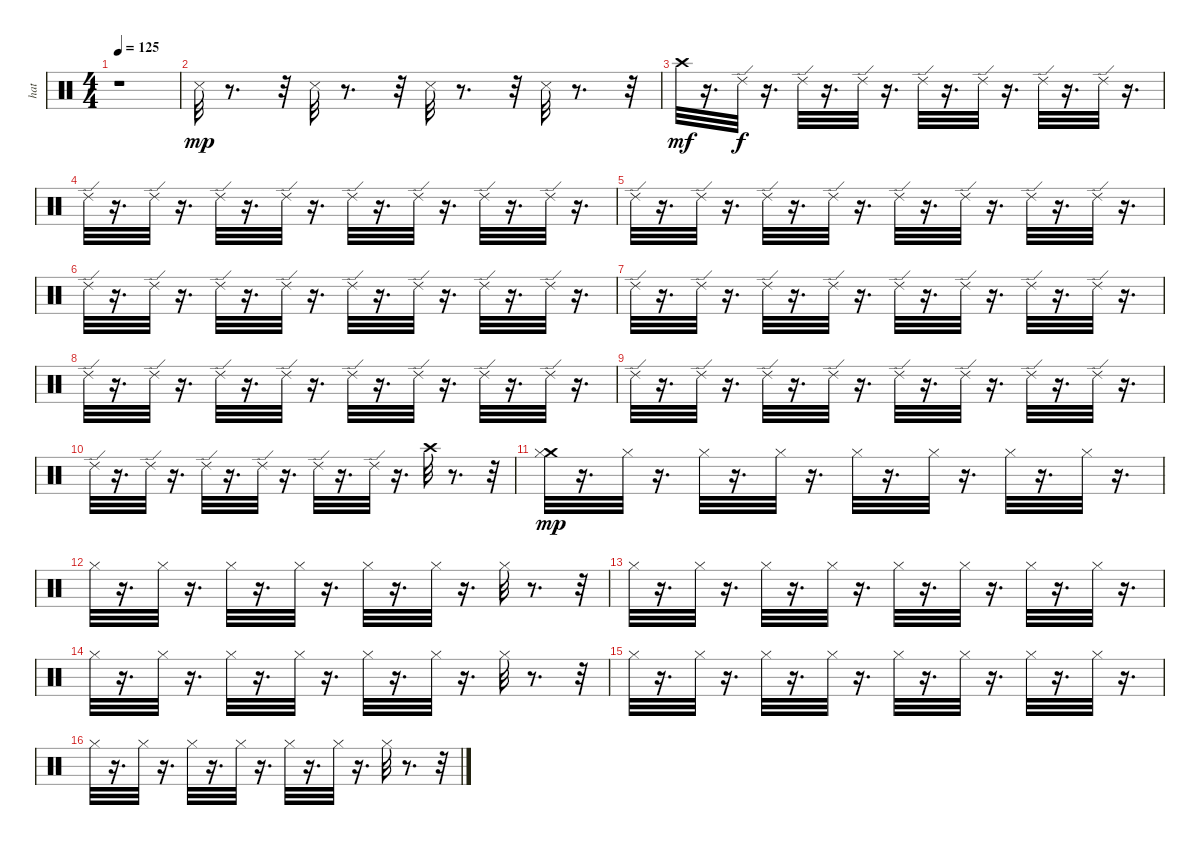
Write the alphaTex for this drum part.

\track ("hat" "hat") {instrument percussion}
\staff {score}
\articulation defaults
\ts (4 4)
\tempo 125
\clef neutral
\ks c
r.1{dy mp} |
"Snare (side stick) 3".32 r.8{d} r.32 "Snare (side stick) 3".32 r.8{d} r.32 "Snare (side stick) 3".32 r.8{d} r.32 "Snare (side stick) 3".32 r.8{d} r.32 |
"Crash high (hit)".32{dy mf} r.16{d} "Ride (edge) 2".32{dy f} r.16{d} "Ride (edge) 2".32 r.16{d} "Ride (edge) 2".32 r.16{d} "Ride (edge) 2".32 r.16{d} "Ride (edge) 2".32 r.16{d} "Ride (edge) 2".32 r.16{d} "Ride (edge) 2".32 r.16{d} |
"Ride (edge) 2".32 r.16{d} "Ride (edge) 2".32 r.16{d} "Ride (edge) 2".32 r.16{d} "Ride (edge) 2".32 r.16{d} "Ride (edge) 2".32 r.16{d} "Ride (edge) 2".32 r.16{d} "Ride (edge) 2".32 r.16{d} "Ride (edge) 2".32 r.16{d} |
"Ride (edge) 2".32 r.16{d} "Ride (edge) 2".32 r.16{d} "Ride (edge) 2".32 r.16{d} "Ride (edge) 2".32 r.16{d} "Ride (edge) 2".32 r.16{d} "Ride (edge) 2".32 r.16{d} "Ride (edge) 2".32 r.16{d} "Ride (edge) 2".32 r.16{d} |
"Ride (edge) 2".32 r.16{d} "Ride (edge) 2".32 r.16{d} "Ride (edge) 2".32 r.16{d} "Ride (edge) 2".32 r.16{d} "Ride (edge) 2".32 r.16{d} "Ride (edge) 2".32 r.16{d} "Ride (edge) 2".32 r.16{d} "Ride (edge) 2".32 r.16{d} |
"Ride (edge) 2".32 r.16{d} "Ride (edge) 2".32 r.16{d} "Ride (edge) 2".32 r.16{d} "Ride (edge) 2".32 r.16{d} "Ride (edge) 2".32 r.16{d} "Ride (edge) 2".32 r.16{d} "Ride (edge) 2".32 r.16{d} "Ride (edge) 2".32 r.16{d} |
"Ride (edge) 2".32 r.16{d} "Ride (edge) 2".32 r.16{d} "Ride (edge) 2".32 r.16{d} "Ride (edge) 2".32 r.16{d} "Ride (edge) 2".32 r.16{d} "Ride (edge) 2".32 r.16{d} "Ride (edge) 2".32 r.16{d} "Ride (edge) 2".32 r.16{d} |
"Ride (edge) 2".32 r.16{d} "Ride (edge) 2".32 r.16{d} "Ride (edge) 2".32 r.16{d} "Ride (edge) 2".32 r.16{d} "Ride (edge) 2".32 r.16{d} "Ride (edge) 2".32 r.16{d} "Ride (edge) 2".32 r.16{d} "Ride (edge) 2".32 r.16{d} |
"Ride (edge) 2".32 r.16{d} "Ride (edge) 2".32 r.16{d} "Ride (edge) 2".32 r.16{d} "Ride (edge) 2".32 r.16{d} "Ride (edge) 2".32 r.16{d} "Ride (edge) 2".32 r.16{d} "Crash high (hit)".32 r.8{d} r.32 |
("Crash medium (hit)" "Hi-Hat (closed)").32{dy mp} r.16{d} "Hi-Hat (closed)".32 r.16{d} "Hi-Hat (closed)".32 r.16{d} "Hi-Hat (closed)".32 r.16{d} "Hi-Hat (closed)".32 r.16{d} "Hi-Hat (closed)".32 r.16{d} "Hi-Hat (closed)".32 r.16{d} "Hi-Hat (closed)".32 r.16{d} |
"Hi-Hat (closed)".32 r.16{d} "Hi-Hat (closed)".32 r.16{d} "Hi-Hat (closed)".32 r.16{d} "Hi-Hat (closed)".32 r.16{d} "Hi-Hat (closed)".32 r.16{d} "Hi-Hat (closed)".32 r.16{d} "Hi-Hat (closed)".32 r.8{d} r.32 |
"Hi-Hat (closed)".32 r.16{d} "Hi-Hat (closed)".32 r.16{d} "Hi-Hat (closed)".32 r.16{d} "Hi-Hat (closed)".32 r.16{d} "Hi-Hat (closed)".32 r.16{d} "Hi-Hat (closed)".32 r.16{d} "Hi-Hat (closed)".32 r.16{d} "Hi-Hat (closed)".32 r.16{d} |
"Hi-Hat (closed)".32 r.16{d} "Hi-Hat (closed)".32 r.16{d} "Hi-Hat (closed)".32 r.16{d} "Hi-Hat (closed)".32 r.16{d} "Hi-Hat (closed)".32 r.16{d} "Hi-Hat (closed)".32 r.16{d} "Hi-Hat (closed)".32 r.8{d} r.32 |
"Hi-Hat (closed)".32 r.16{d} "Hi-Hat (closed)".32 r.16{d} "Hi-Hat (closed)".32 r.16{d} "Hi-Hat (closed)".32 r.16{d} "Hi-Hat (closed)".32 r.16{d} "Hi-Hat (closed)".32 r.16{d} "Hi-Hat (closed)".32 r.16{d} "Hi-Hat (closed)".32 r.16{d} |
"Hi-Hat (closed)".32 r.16{d} "Hi-Hat (closed)".32 r.16{d} "Hi-Hat (closed)".32 r.16{d} "Hi-Hat (closed)".32 r.16{d} "Hi-Hat (closed)".32 r.16{d} "Hi-Hat (closed)".32 r.16{d} "Hi-Hat (closed)".32 r.8{d} r.32
